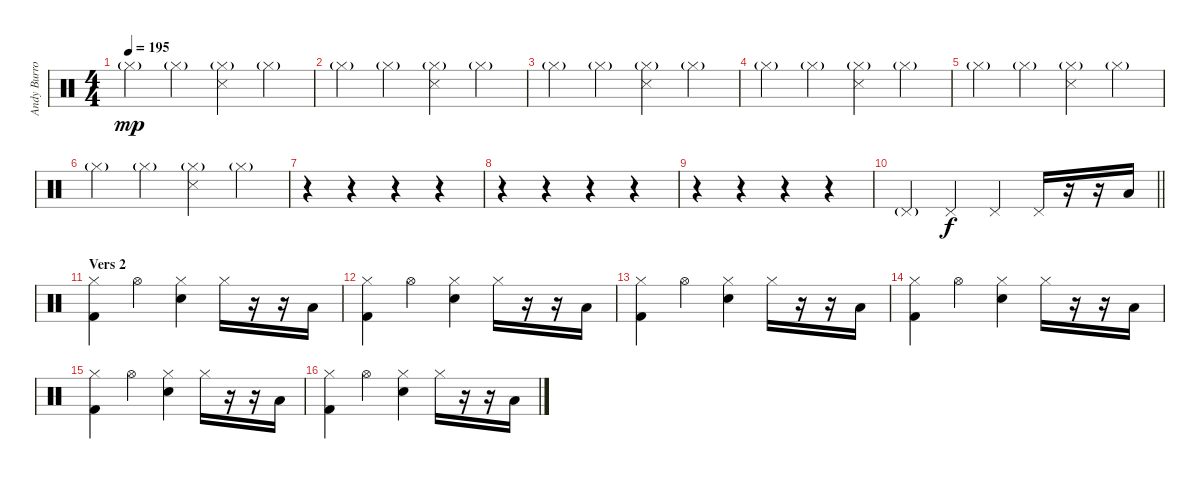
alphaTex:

\track ("Andy Burrows (drums)" "Andy Burro") {instrument percussion}
\staff {score}
\articulation defaults
\ts (4 4)
\tempo 195
\clef neutral
\ks c "Hi-Hat (closed)"{g}.4{dy mp} "Hi-Hat (closed)"{g}.4
("Hi-Hat (closed)"{g} "Snare (side stick) 3").4 "Hi-Hat (closed)"{g}.4 |
"Hi-Hat (closed)"{g}.4 "Hi-Hat (closed)"{g}.4 ("Hi-Hat (closed)"{g} "Snare (side stick) 3").4 "Hi-Hat (closed)"{g}.4 |
"Hi-Hat (closed)"{g}.4 "Hi-Hat (closed)"{g}.4 ("Hi-Hat (closed)"{g} "Snare (side stick) 3").4 "Hi-Hat (closed)"{g}.4 |
"Hi-Hat (closed)"{g}.4 "Hi-Hat (closed)"{g}.4 ("Hi-Hat (closed)"{g} "Snare (side stick) 3").4 "Hi-Hat (closed)"{g}.4 |
"Hi-Hat (closed)"{g}.4 "Hi-Hat (closed)"{g}.4 ("Hi-Hat (closed)"{g} "Snare (side stick) 3").4 "Hi-Hat (closed)"{g}.4 |
"Hi-Hat (closed)"{g}.4 "Hi-Hat (closed)"{g}.4 ("Hi-Hat (closed)"{g} "Snare (side stick) 3").4 "Hi-Hat (closed)"{g}.4 |
r.4 r.4 r.4 r.4 |
r.4 r.4 r.4 r.4 |
r.4 r.4 r.4 r.4 |
\barLineRight lightlight "Pedal Hi-Hat (hit)"{g}.4 "Pedal Hi-Hat (hit)".4{dy f} "Pedal Hi-Hat (hit)".4 "Pedal Hi-Hat (hit)".16
r.16 r.16 "Low Floor Tom (hit)".16 |
\section ("" "Vers 2")
("Hi-Hat (closed)" "Kick (hit) 2").4 "Hi-Hat (open)".4 ("Hi-Hat (closed)" "Electric Snare (hit)").4 "Hi-Hat (closed)".16 r.16 r.16 "Low Floor Tom (hit)".16 |
("Hi-Hat (closed)" "Kick (hit) 2").4 "Hi-Hat (open)".4 ("Hi-Hat (closed)" "Electric Snare (hit)").4 "Hi-Hat (closed)".16 r.16 r.16 "Low Floor Tom (hit)".16 |
("Hi-Hat (closed)" "Kick (hit) 2").4 "Hi-Hat (open)".4 ("Hi-Hat (closed)" "Electric Snare (hit)").4 "Hi-Hat (closed)".16 r.16 r.16 "Low Floor Tom (hit)".16 |
("Hi-Hat (closed)" "Kick (hit) 2").4 "Hi-Hat (open)".4 ("Hi-Hat (closed)" "Electric Snare (hit)").4 "Hi-Hat (closed)".16 r.16 r.16 "Low Floor Tom (hit)".16 |
("Hi-Hat (closed)" "Kick (hit) 2").4 "Hi-Hat (open)".4 ("Hi-Hat (closed)" "Electric Snare (hit)").4 "Hi-Hat (closed)".16 r.16 r.16 "Low Floor Tom (hit)".16 |
("Hi-Hat (closed)" "Kick (hit) 2").4 "Hi-Hat (open)".4 ("Hi-Hat (closed)" "Electric Snare (hit)").4 "Hi-Hat (closed)".16 r.16 r.16 "Low Floor Tom (hit)".16
